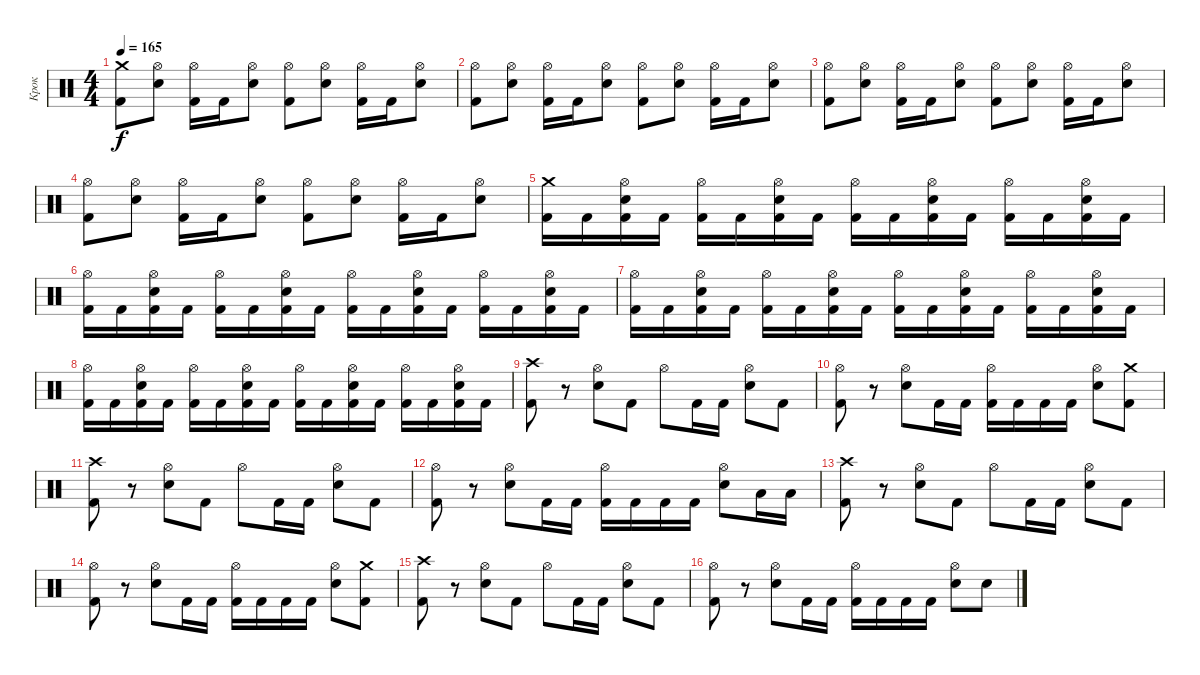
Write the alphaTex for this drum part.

\track ("Крок" "Крок") {instrument percussion}
\staff {score}
\articulation defaults
\ts (4 4)
\tempo 165
\clef neutral
\ks c
("Crash medium (hit)" "Kick (hit) 2").8{dy f} ("Hi-Hat (open)" "Electric Snare (hit)").8 ("Hi-Hat (open)" "Kick (hit) 2").16 "Kick (hit) 2".16 ("Hi-Hat (open)" "Electric Snare (hit)").8 ("Hi-Hat (open)" "Kick (hit) 2").8 ("Hi-Hat (open)" "Electric Snare (hit)").8 ("Hi-Hat (open)" "Kick (hit) 2").16 "Kick (hit) 2".16 ("Hi-Hat (open)" "Electric Snare (hit)").8 |
("Hi-Hat (open)" "Kick (hit) 2").8 ("Hi-Hat (open)" "Electric Snare (hit)").8 ("Hi-Hat (open)" "Kick (hit) 2").16 "Kick (hit) 2".16 ("Hi-Hat (open)" "Electric Snare (hit)").8 ("Hi-Hat (open)" "Kick (hit) 2").8 ("Hi-Hat (open)" "Electric Snare (hit)").8 ("Hi-Hat (open)" "Kick (hit) 2").16 "Kick (hit) 2".16 ("Hi-Hat (open)" "Electric Snare (hit)").8 |
("Hi-Hat (open)" "Kick (hit) 2").8 ("Hi-Hat (open)" "Electric Snare (hit)").8 ("Hi-Hat (open)" "Kick (hit) 2").16 "Kick (hit) 2".16 ("Hi-Hat (open)" "Electric Snare (hit)").8 ("Hi-Hat (open)" "Kick (hit) 2").8 ("Hi-Hat (open)" "Electric Snare (hit)").8 ("Hi-Hat (open)" "Kick (hit) 2").16 "Kick (hit) 2".16 ("Hi-Hat (open)" "Electric Snare (hit)").8 |
("Hi-Hat (open)" "Kick (hit) 2").8 ("Hi-Hat (open)" "Electric Snare (hit)").8 ("Hi-Hat (open)" "Kick (hit) 2").16 "Kick (hit) 2".16 ("Hi-Hat (open)" "Electric Snare (hit)").8 ("Hi-Hat (open)" "Kick (hit) 2").8 ("Hi-Hat (open)" "Electric Snare (hit)").8 ("Hi-Hat (open)" "Kick (hit) 2").16 "Kick (hit) 2".16 ("Hi-Hat (open)" "Electric Snare (hit)").8 |
("Kick (hit) 2" "Crash medium (hit)").16 "Kick (hit) 2".16 ("Kick (hit) 2" "Electric Snare (hit)" "Hi-Hat (open)").16 "Kick (hit) 2".16 ("Kick (hit) 2" "Hi-Hat (open)").16 "Kick (hit) 2".16 ("Kick (hit) 2" "Electric Snare (hit)" "Hi-Hat (open)").16 "Kick (hit) 2".16 ("Kick (hit) 2" "Hi-Hat (open)").16 "Kick (hit) 2".16 ("Kick (hit) 2" "Electric Snare (hit)" "Hi-Hat (open)").16 "Kick (hit) 2".16 ("Kick (hit) 2" "Hi-Hat (open)").16 "Kick (hit) 2".16 ("Kick (hit) 2" "Electric Snare (hit)" "Hi-Hat (open)").16 "Kick (hit) 2".16 |
("Kick (hit) 2" "Hi-Hat (open)").16 "Kick (hit) 2".16 ("Kick (hit) 2" "Electric Snare (hit)" "Hi-Hat (open)").16 "Kick (hit) 2".16 ("Kick (hit) 2" "Hi-Hat (open)").16 "Kick (hit) 2".16 ("Kick (hit) 2" "Electric Snare (hit)" "Hi-Hat (open)").16 "Kick (hit) 2".16 ("Kick (hit) 2" "Hi-Hat (open)").16 "Kick (hit) 2".16 ("Kick (hit) 2" "Electric Snare (hit)" "Hi-Hat (open)").16 "Kick (hit) 2".16 ("Kick (hit) 2" "Hi-Hat (open)").16 "Kick (hit) 2".16 ("Kick (hit) 2" "Electric Snare (hit)" "Hi-Hat (open)").16 "Kick (hit) 2".16 |
("Kick (hit) 2" "Hi-Hat (open)").16 "Kick (hit) 2".16 ("Kick (hit) 2" "Electric Snare (hit)" "Hi-Hat (open)").16 "Kick (hit) 2".16 ("Kick (hit) 2" "Hi-Hat (open)").16 "Kick (hit) 2".16 ("Kick (hit) 2" "Electric Snare (hit)" "Hi-Hat (open)").16 "Kick (hit) 2".16 ("Kick (hit) 2" "Hi-Hat (open)").16 "Kick (hit) 2".16 ("Kick (hit) 2" "Electric Snare (hit)" "Hi-Hat (open)").16 "Kick (hit) 2".16 ("Kick (hit) 2" "Hi-Hat (open)").16 "Kick (hit) 2".16 ("Kick (hit) 2" "Electric Snare (hit)" "Hi-Hat (open)").16 "Kick (hit) 2".16 |
("Kick (hit) 2" "Hi-Hat (open)").16 "Kick (hit) 2".16 ("Kick (hit) 2" "Electric Snare (hit)" "Hi-Hat (open)").16 "Kick (hit) 2".16 ("Kick (hit) 2" "Hi-Hat (open)").16 "Kick (hit) 2".16 ("Kick (hit) 2" "Electric Snare (hit)" "Hi-Hat (open)").16 "Kick (hit) 2".16 ("Kick (hit) 2" "Hi-Hat (open)").16 "Kick (hit) 2".16 ("Kick (hit) 2" "Electric Snare (hit)" "Hi-Hat (open)").16 "Kick (hit) 2".16 ("Kick (hit) 2" "Hi-Hat (open)").16 "Kick (hit) 2".16 ("Kick (hit) 2" "Electric Snare (hit)" "Hi-Hat (open)").16 "Kick (hit) 2".16 |
("Crash high (hit)" "Kick (hit) 2").8 r.8 ("Hi-Hat (open)" "Electric Snare (hit)").8 "Kick (hit) 2".8 "Hi-Hat (open)".8 "Kick (hit) 2".16 "Kick (hit) 2".16 ("Hi-Hat (open)" "Electric Snare (hit)").8 "Kick (hit) 2".8 |
("Hi-Hat (open)" "Kick (hit) 2").8 r.8 ("Hi-Hat (open)" "Electric Snare (hit)").8 "Kick (hit) 2".16 "Kick (hit) 2".16 ("Hi-Hat (open)" "Kick (hit) 2").16 "Kick (hit) 2".16 "Kick (hit) 2".16 "Kick (hit) 2".16 ("Hi-Hat (open)" "Electric Snare (hit)").8 ("Crash medium (hit)" "Kick (hit) 2").8 |
("Crash high (hit)" "Kick (hit) 2").8 r.8 ("Hi-Hat (open)" "Electric Snare (hit)").8 "Kick (hit) 2".8 "Hi-Hat (open)".8 "Kick (hit) 2".16 "Kick (hit) 2".16 ("Hi-Hat (open)" "Electric Snare (hit)").8 "Kick (hit) 2".8 |
("Hi-Hat (open)" "Kick (hit) 2").8 r.8 ("Hi-Hat (open)" "Electric Snare (hit)").8 "Kick (hit) 2".16 "Kick (hit) 2".16 ("Hi-Hat (open)" "Kick (hit) 2").16 "Kick (hit) 2".16 "Kick (hit) 2".16 "Kick (hit) 2".16 ("Hi-Hat (open)" "Electric Snare (hit)").8 "Low Tom (hit)".16 "Low Tom (hit)".16 |
("Crash high (hit)" "Kick (hit) 2").8 r.8 ("Hi-Hat (open)" "Electric Snare (hit)").8 "Kick (hit) 2".8 "Hi-Hat (open)".8 "Kick (hit) 2".16 "Kick (hit) 2".16 ("Hi-Hat (open)" "Electric Snare (hit)").8 "Kick (hit) 2".8 |
("Hi-Hat (open)" "Kick (hit) 2").8 r.8 ("Hi-Hat (open)" "Electric Snare (hit)").8 "Kick (hit) 2".16 "Kick (hit) 2".16 ("Hi-Hat (open)" "Kick (hit) 2").16 "Kick (hit) 2".16 "Kick (hit) 2".16 "Kick (hit) 2".16 ("Hi-Hat (open)" "Electric Snare (hit)").8 ("Crash medium (hit)" "Kick (hit) 2").8 |
("Crash high (hit)" "Kick (hit) 2").8 r.8 ("Hi-Hat (open)" "Electric Snare (hit)").8 "Kick (hit) 2".8 "Hi-Hat (open)".8 "Kick (hit) 2".16 "Kick (hit) 2".16 ("Hi-Hat (open)" "Electric Snare (hit)").8 "Kick (hit) 2".8 |
("Hi-Hat (open)" "Kick (hit) 2").8 r.8 ("Hi-Hat (open)" "Electric Snare (hit)").8 "Kick (hit) 2".16 "Kick (hit) 2".16 ("Hi-Hat (open)" "Kick (hit) 2").16 "Kick (hit) 2".16 "Kick (hit) 2".16 "Kick (hit) 2".16 ("Hi-Hat (open)" "Electric Snare (hit)").8 "Electric Snare (hit)".8
